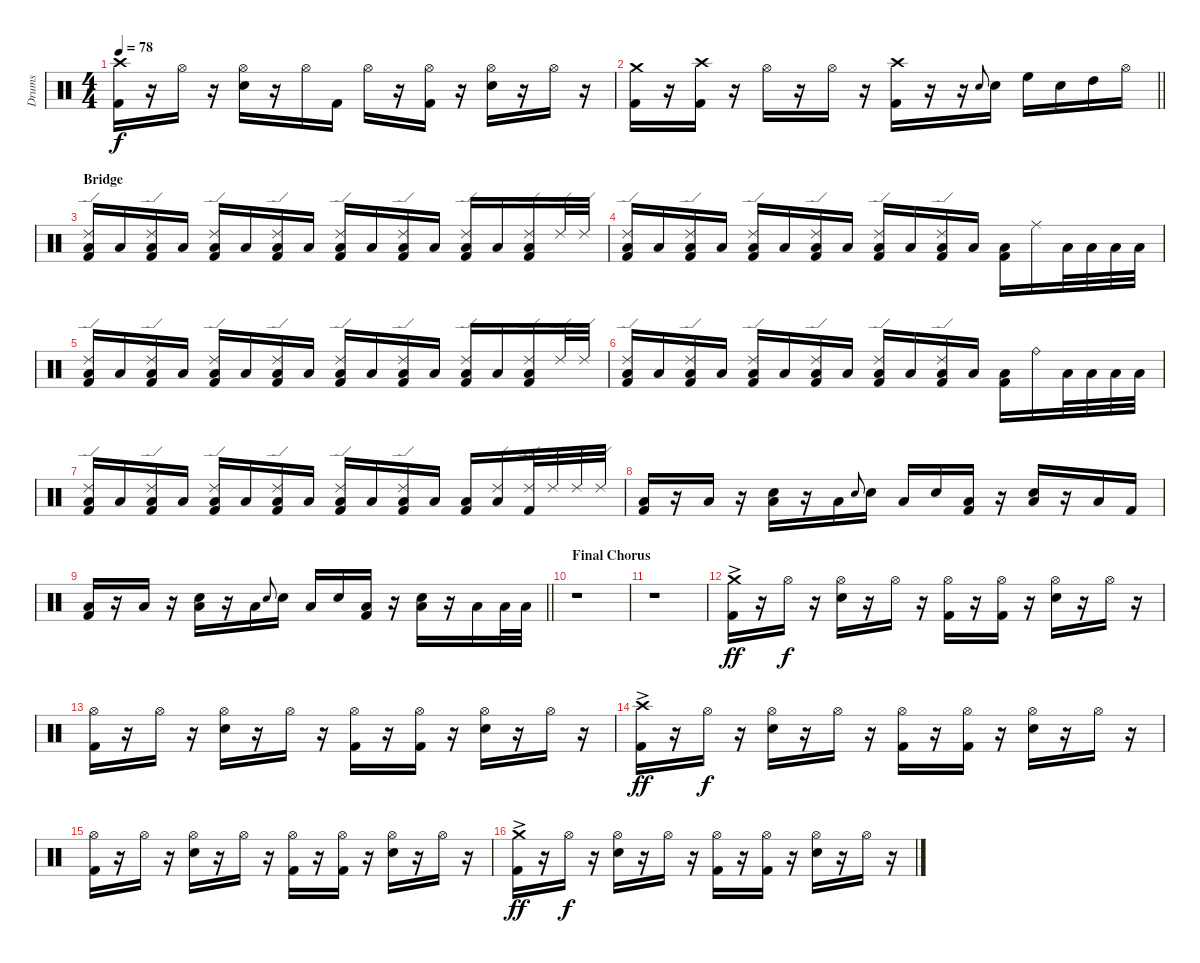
\track ("Drums" "Drums") {instrument percussion}
\staff {score}
\articulation defaults
\ts (4 4)
\tempo 78
\clef neutral
\ks c
("Crash high (hit)" "Kick (hit) 2").16{dy f} r.16 "Hi-Hat (open)".16 r.16 ("Hi-Hat (open)" "Snare (hit) 2").16 r.16 "Hi-Hat (open)".16 "Kick (hit) 2".16 "Hi-Hat (open)".16 r.16 ("Hi-Hat (open)" "Kick (hit) 2").16 r.16 ("Hi-Hat (open)" "Snare (hit) 2").16 r.16 "Hi-Hat (open)".16 r.16 |
\barLineRight lightlight
("Crash medium (hit)" "Kick (hit) 2").16 r.16 ("Crash high (hit)" "Kick (hit) 2").16 r.16 "Hi-Hat (open)".16 r.16 "Hi-Hat (open)".16 r.16 ("Crash high (hit)" "Kick (hit) 2").16 r.16 r.16 "Snare (hit) 2"{x}.8{gr onbeat} "Snare (hit) 2".16 "High Floor Tom (hit)".16 "Snare (hit) 2".16 "High Tom (hit)".16 "Hi-Hat (open)".16 |
\section ("" "Bridge")
("Ride (edge) 2" "Low Floor Tom (hit)" "Kick (hit) 2").16 "Low Floor Tom (hit)".16 ("Ride (edge) 2" "Low Floor Tom (hit)" "Kick (hit) 2").16 "Low Floor Tom (hit)".16 ("Ride (edge) 2" "Low Floor Tom (hit)" "Kick (hit) 2").16 "Low Floor Tom (hit)".16 ("Ride (edge) 2" "Low Floor Tom (hit)" "Kick (hit) 2").16 "Low Floor Tom (hit)".16 ("Ride (edge) 2" "Low Floor Tom (hit)" "Kick (hit) 2").16 "Low Floor Tom (hit)".16 ("Ride (edge) 2" "Low Floor Tom (hit)" "Kick (hit) 2").16 "Low Floor Tom (hit)".16 ("Ride (edge) 2" "Low Floor Tom (hit)" "Kick (hit) 2").16 "Low Floor Tom (hit)".16 ("Ride (edge) 2" "Low Floor Tom (hit)" "Kick (hit) 2").16 "Ride (edge) 2".32 "Ride (edge) 2".32 |
("Ride (edge) 2" "Low Floor Tom (hit)" "Kick (hit) 2").16 "Low Floor Tom (hit)".16 ("Ride (edge) 2" "Low Floor Tom (hit)" "Kick (hit) 2").16 "Low Floor Tom (hit)".16 ("Ride (edge) 2" "Low Floor Tom (hit)" "Kick (hit) 2").16 "Low Floor Tom (hit)".16 ("Ride (edge) 2" "Low Floor Tom (hit)" "Kick (hit) 2").16 "Low Floor Tom (hit)".16 ("Ride (edge) 2" "Low Floor Tom (hit)" "Kick (hit) 2").16 "Low Floor Tom (hit)".16 ("Ride (edge) 2" "Low Floor Tom (hit)" "Kick (hit) 2").16 "Low Floor Tom (hit)".16 ("Low Floor Tom (hit)" "Kick (hit) 2").16 "Ride (middle)".16 "Low Floor Tom (hit)".32 "Low Floor Tom (hit)".32 "Low Floor Tom (hit)".32 "Low Floor Tom (hit)".32 |
("Ride (edge) 2" "Low Floor Tom (hit)" "Kick (hit) 2").16 "Low Floor Tom (hit)".16 ("Ride (edge) 2" "Low Floor Tom (hit)" "Kick (hit) 2").16 "Low Floor Tom (hit)".16 ("Ride (edge) 2" "Low Floor Tom (hit)" "Kick (hit) 2").16 "Low Floor Tom (hit)".16 ("Ride (edge) 2" "Low Floor Tom (hit)" "Kick (hit) 2").16 "Low Floor Tom (hit)".16 ("Ride (edge) 2" "Low Floor Tom (hit)" "Kick (hit) 2").16 "Low Floor Tom (hit)".16 ("Ride (edge) 2" "Low Floor Tom (hit)" "Kick (hit) 2").16 "Low Floor Tom (hit)".16 ("Ride (edge) 2" "Low Floor Tom (hit)" "Kick (hit) 2").16 "Low Floor Tom (hit)".16 ("Ride (edge) 2" "Low Floor Tom (hit)" "Kick (hit) 2").16 "Ride (edge) 2".32 "Ride (edge) 2".32 |
("Ride (edge) 2" "Low Floor Tom (hit)" "Kick (hit) 2").16 "Low Floor Tom (hit)".16 ("Ride (edge) 2" "Low Floor Tom (hit)" "Kick (hit) 2").16 "Low Floor Tom (hit)".16 ("Ride (edge) 2" "Low Floor Tom (hit)" "Kick (hit) 2").16 "Low Floor Tom (hit)".16 ("Ride (edge) 2" "Low Floor Tom (hit)" "Kick (hit) 2").16 "Low Floor Tom (hit)".16 ("Ride (edge) 2" "Low Floor Tom (hit)" "Kick (hit) 2").16 "Low Floor Tom (hit)".16 ("Ride (edge) 2" "Low Floor Tom (hit)" "Kick (hit) 2").16 "Low Floor Tom (hit)".16 ("Low Floor Tom (hit)" "Kick (hit) 2").16 "Ride (bell)".16 "Low Floor Tom (hit)".32 "Low Floor Tom (hit)".32 "Low Floor Tom (hit)".32 "Low Floor Tom (hit)".32 |
("Ride (edge) 2" "Low Floor Tom (hit)" "Kick (hit) 2").16 "Low Floor Tom (hit)".16 ("Ride (edge) 2" "Low Floor Tom (hit)" "Kick (hit) 2").16 "Low Floor Tom (hit)".16 ("Ride (edge) 2" "Low Floor Tom (hit)" "Kick (hit) 2").16 "Low Floor Tom (hit)".16 ("Ride (edge) 2" "Low Floor Tom (hit)" "Kick (hit) 2").16 "Low Floor Tom (hit)".16 ("Ride (edge) 2" "Low Floor Tom (hit)" "Kick (hit) 2").16 "Low Floor Tom (hit)".16 ("Ride (edge) 2" "Low Floor Tom (hit)" "Kick (hit) 2").16 "Low Floor Tom (hit)".16 ("Low Floor Tom (hit)" "Kick (hit) 2").16 ("Ride (edge) 2" "Low Floor Tom (hit)").16 ("Ride (edge) 2" "Kick (hit) 2").32 "Ride (edge) 2".32 "Ride (edge) 2".32 "Ride (edge) 2".32 |
("Low Floor Tom (hit)" "Kick (hit) 2").16 r.16 "Low Floor Tom (hit)".16 r.16 ("Snare (hit) 2" "Low Floor Tom (hit)").16 r.16 "Low Floor Tom (hit)".16 "Snare (hit) 2".8{gr onbeat} "Snare (hit) 2".16 "Low Floor Tom (hit)".16 "Snare (hit) 2".16 ("Low Floor Tom (hit)" "Kick (hit) 2").16 r.16 ("Snare (hit) 2" "Low Floor Tom (hit)").16 r.16 "Low Floor Tom (hit)".16 "Kick (hit) 2".16 |
\barLineRight lightlight
("Low Floor Tom (hit)" "Kick (hit) 2").16 r.16 "Low Floor Tom (hit)".16 r.16 ("Snare (hit) 2" "Low Floor Tom (hit)").16 r.16 "Low Floor Tom (hit)".16 "Snare (hit) 2".8{gr onbeat} "Snare (hit) 2".16 "Low Floor Tom (hit)".16 "Snare (hit) 2".16 ("Low Floor Tom (hit)" "Kick (hit) 2").16 r.16 ("Snare (hit) 2" "Low Floor Tom (hit)").16 r.16 "Low Floor Tom (hit)".16 "Low Floor Tom (hit)".32 "Low Floor Tom (hit)".32 |
\section ("" "Final Chorus")
r.1 |
r.1 |
("Crash medium (hit)"{ac} "Kick (hit) 2").16{dy ff} r.16 "Hi-Hat (open)".16{dy f} r.16 ("Hi-Hat (open)" "Snare (hit) 2").16 r.16 "Hi-Hat (open)".16 r.16 ("Hi-Hat (open)" "Kick (hit) 2").16 r.16 ("Hi-Hat (open)" "Kick (hit) 2").16 r.16 ("Hi-Hat (open)" "Snare (hit) 2").16 r.16 "Hi-Hat (open)".16 r.16 |
("Hi-Hat (open)" "Kick (hit) 2").16 r.16 "Hi-Hat (open)".16 r.16 ("Hi-Hat (open)" "Snare (hit) 2").16 r.16 "Hi-Hat (open)".16 r.16 ("Hi-Hat (open)" "Kick (hit) 2").16 r.16 ("Hi-Hat (open)" "Kick (hit) 2").16 r.16 ("Hi-Hat (open)" "Snare (hit) 2").16 r.16 "Hi-Hat (open)".16 r.16 |
("Crash high (hit)"{ac} "Kick (hit) 2").16{dy ff} r.16 "Hi-Hat (open)".16{dy f} r.16 ("Hi-Hat (open)" "Snare (hit) 2").16 r.16 "Hi-Hat (open)".16 r.16 ("Hi-Hat (open)" "Kick (hit) 2").16 r.16 ("Hi-Hat (open)" "Kick (hit) 2").16 r.16 ("Hi-Hat (open)" "Snare (hit) 2").16 r.16 "Hi-Hat (open)".16 r.16 |
("Hi-Hat (open)" "Kick (hit) 2").16 r.16 "Hi-Hat (open)".16 r.16 ("Hi-Hat (open)" "Snare (hit) 2").16 r.16 "Hi-Hat (open)".16 r.16 ("Hi-Hat (open)" "Kick (hit) 2").16 r.16 ("Hi-Hat (open)" "Kick (hit) 2").16 r.16 ("Hi-Hat (open)" "Snare (hit) 2").16 r.16 "Hi-Hat (open)".16 r.16 |
("Crash medium (hit)"{ac} "Kick (hit) 2").16{dy ff} r.16 "Hi-Hat (open)".16{dy f} r.16 ("Hi-Hat (open)" "Snare (hit) 2").16 r.16 "Hi-Hat (open)".16 r.16 ("Hi-Hat (open)" "Kick (hit) 2").16 r.16 ("Hi-Hat (open)" "Kick (hit) 2").16 r.16 ("Hi-Hat (open)" "Snare (hit) 2").16 r.16 "Hi-Hat (open)".16 r.16
